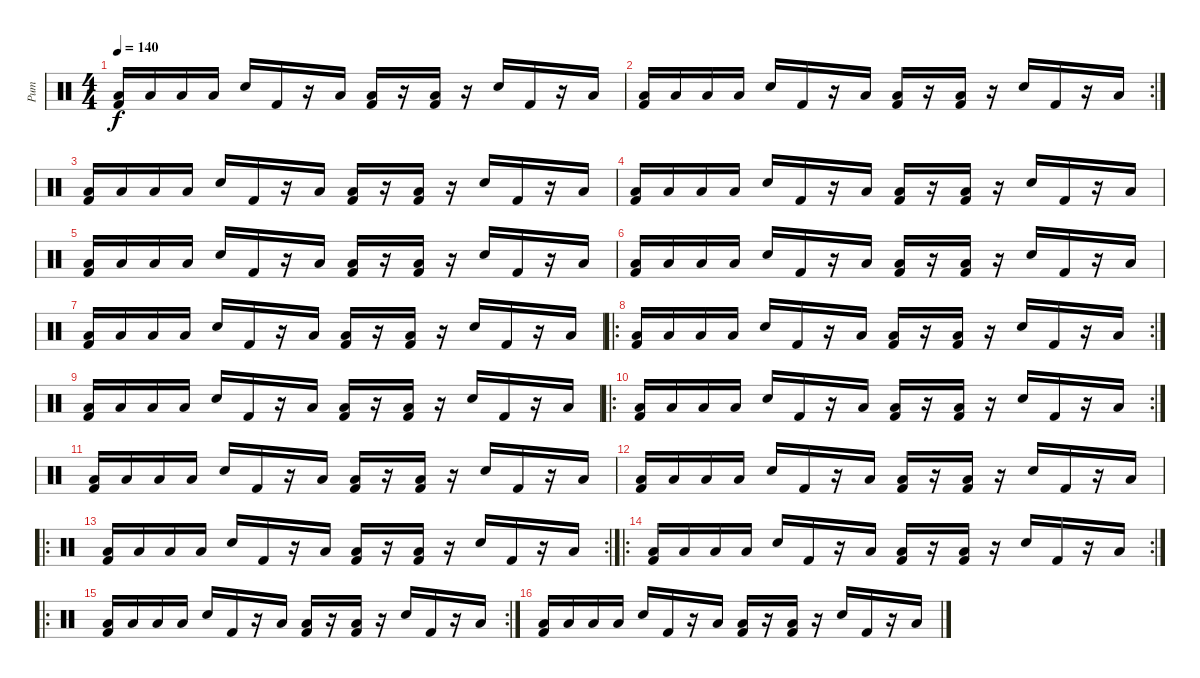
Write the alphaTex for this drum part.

\track ("Рит" "Рит") {instrument percussion}
\staff {score}
\articulation defaults
\ts (4 4)
\tempo 140
\clef neutral
\ks c
("Low Floor Tom (hit)" "Kick (hit) 2").16{dy f volume 6 balance 0} "Low Floor Tom (hit)".16{balance 16} "Low Floor Tom (hit)".16{balance 0} "Low Floor Tom (hit)".16{balance 16} "Snare (hit) 2".16{balance 0} "Kick (hit) 2".16{balance 16} r.16 "Low Tom (hit)".16{balance 0} ("Low Floor Tom (hit)" "Kick (hit) 2").16{balance 16} r.16 ("Low Floor Tom (hit)" "Kick (hit) 2").16{balance 0} r.16 "Snare (hit) 2".16{balance 0} "Kick (hit) 2".16{balance 0} r.16 "Low Tom (hit)".16{balance 16} |
\rc 2
("Low Floor Tom (hit)" "Kick (hit) 2").16{volume 5 balance 0} "Low Floor Tom (hit)".16{balance 16} "Low Floor Tom (hit)".16{balance 0} "Low Floor Tom (hit)".16{balance 16} "Snare (hit) 2".16{balance 0} "Kick (hit) 2".16{balance 16} r.16 "Low Tom (hit)".16{balance 0} ("Low Floor Tom (hit)" "Kick (hit) 2").16{balance 16} r.16 ("Low Floor Tom (hit)" "Kick (hit) 2").16{balance 0} r.16 "Snare (hit) 2".16{balance 0} "Kick (hit) 2".16{balance 0} r.16 "Low Tom (hit)".16{balance 16} |
("Low Floor Tom (hit)" "Kick (hit) 2").16{volume 16} "Low Floor Tom (hit)".16 "Low Floor Tom (hit)".16 "Low Floor Tom (hit)".16 "Snare (hit) 2".16 "Kick (hit) 2".16 r.16 "Low Tom (hit)".16 ("Low Floor Tom (hit)" "Kick (hit) 2").16 r.16 ("Low Floor Tom (hit)" "Kick (hit) 2").16 r.16 "Snare (hit) 2".16 "Kick (hit) 2".16 r.16 "Low Tom (hit)".16 |
("Low Floor Tom (hit)" "Kick (hit) 2").16{volume 16} "Low Floor Tom (hit)".16 "Low Floor Tom (hit)".16 "Low Floor Tom (hit)".16 "Snare (hit) 2".16 "Kick (hit) 2".16 r.16 "Low Tom (hit)".16 ("Low Floor Tom (hit)" "Kick (hit) 2").16 r.16 ("Low Floor Tom (hit)" "Kick (hit) 2").16 r.16 "Snare (hit) 2".16 "Kick (hit) 2".16 r.16 "Low Tom (hit)".16 |
("Low Floor Tom (hit)" "Kick (hit) 2").16{volume 16} "Low Floor Tom (hit)".16 "Low Floor Tom (hit)".16 "Low Floor Tom (hit)".16 "Snare (hit) 2".16 "Kick (hit) 2".16 r.16 "Low Tom (hit)".16 ("Low Floor Tom (hit)" "Kick (hit) 2").16 r.16 ("Low Floor Tom (hit)" "Kick (hit) 2").16 r.16 "Snare (hit) 2".16 "Kick (hit) 2".16 r.16 "Low Tom (hit)".16 |
("Low Floor Tom (hit)" "Kick (hit) 2").16{volume 16} "Low Floor Tom (hit)".16 "Low Floor Tom (hit)".16 "Low Floor Tom (hit)".16 "Snare (hit) 2".16 "Kick (hit) 2".16 r.16 "Low Tom (hit)".16 ("Low Floor Tom (hit)" "Kick (hit) 2").16 r.16 ("Low Floor Tom (hit)" "Kick (hit) 2").16 r.16 "Snare (hit) 2".16 "Kick (hit) 2".16 r.16 "Low Tom (hit)".16 |
("Low Floor Tom (hit)" "Kick (hit) 2").16{volume 16} "Low Floor Tom (hit)".16 "Low Floor Tom (hit)".16 "Low Floor Tom (hit)".16 "Snare (hit) 2".16 "Kick (hit) 2".16 r.16 "Low Tom (hit)".16 ("Low Floor Tom (hit)" "Kick (hit) 2").16 r.16 ("Low Floor Tom (hit)" "Kick (hit) 2").16 r.16 "Snare (hit) 2".16 "Kick (hit) 2".16 r.16 "Low Tom (hit)".16 |
\ro
\rc 2
("Low Floor Tom (hit)" "Kick (hit) 2").16{volume 16} "Low Floor Tom (hit)".16 "Low Floor Tom (hit)".16 "Low Floor Tom (hit)".16 "Snare (hit) 2".16 "Kick (hit) 2".16 r.16 "Low Tom (hit)".16 ("Low Floor Tom (hit)" "Kick (hit) 2").16 r.16 ("Low Floor Tom (hit)" "Kick (hit) 2").16 r.16 "Snare (hit) 2".16 "Kick (hit) 2".16 r.16 "Low Tom (hit)".16 |
("Low Floor Tom (hit)" "Kick (hit) 2").16{volume 16} "Low Floor Tom (hit)".16 "Low Floor Tom (hit)".16 "Low Floor Tom (hit)".16 "Snare (hit) 2".16 "Kick (hit) 2".16 r.16 "Low Tom (hit)".16 ("Low Floor Tom (hit)" "Kick (hit) 2").16 r.16 ("Low Floor Tom (hit)" "Kick (hit) 2").16 r.16 "Snare (hit) 2".16 "Kick (hit) 2".16 r.16 "Low Tom (hit)".16 |
\ro
\rc 2
("Low Floor Tom (hit)" "Kick (hit) 2").16{volume 16} "Low Floor Tom (hit)".16 "Low Floor Tom (hit)".16 "Low Floor Tom (hit)".16 "Snare (hit) 2".16 "Kick (hit) 2".16 r.16 "Low Tom (hit)".16 ("Low Floor Tom (hit)" "Kick (hit) 2").16 r.16 ("Low Floor Tom (hit)" "Kick (hit) 2").16 r.16 "Snare (hit) 2".16 "Kick (hit) 2".16 r.16 "Low Tom (hit)".16 |
("Low Floor Tom (hit)" "Kick (hit) 2").16{volume 16} "Low Floor Tom (hit)".16 "Low Floor Tom (hit)".16 "Low Floor Tom (hit)".16 "Snare (hit) 2".16 "Kick (hit) 2".16 r.16 "Low Tom (hit)".16 ("Low Floor Tom (hit)" "Kick (hit) 2").16 r.16 ("Low Floor Tom (hit)" "Kick (hit) 2").16 r.16 "Snare (hit) 2".16 "Kick (hit) 2".16 r.16 "Low Tom (hit)".16 |
("Low Floor Tom (hit)" "Kick (hit) 2").16{volume 16} "Low Floor Tom (hit)".16 "Low Floor Tom (hit)".16 "Low Floor Tom (hit)".16 "Snare (hit) 2".16 "Kick (hit) 2".16 r.16 "Low Tom (hit)".16 ("Low Floor Tom (hit)" "Kick (hit) 2").16 r.16 ("Low Floor Tom (hit)" "Kick (hit) 2").16 r.16 "Snare (hit) 2".16 "Kick (hit) 2".16 r.16 "Low Tom (hit)".16 |
\ro
\rc 2
("Low Floor Tom (hit)" "Kick (hit) 2").16{volume 16} "Low Floor Tom (hit)".16 "Low Floor Tom (hit)".16 "Low Floor Tom (hit)".16 "Snare (hit) 2".16 "Kick (hit) 2".16 r.16 "Low Tom (hit)".16 ("Low Floor Tom (hit)" "Kick (hit) 2").16 r.16 ("Low Floor Tom (hit)" "Kick (hit) 2").16 r.16 "Snare (hit) 2".16 "Kick (hit) 2".16 r.16 "Low Tom (hit)".16 |
\ro
\rc 2
("Low Floor Tom (hit)" "Kick (hit) 2").16{volume 16} "Low Floor Tom (hit)".16 "Low Floor Tom (hit)".16 "Low Floor Tom (hit)".16 "Snare (hit) 2".16 "Kick (hit) 2".16 r.16 "Low Tom (hit)".16 ("Low Floor Tom (hit)" "Kick (hit) 2").16 r.16 ("Low Floor Tom (hit)" "Kick (hit) 2").16 r.16 "Snare (hit) 2".16 "Kick (hit) 2".16 r.16 "Low Tom (hit)".16 |
\ro
\rc 2
("Low Floor Tom (hit)" "Kick (hit) 2").16{volume 16} "Low Floor Tom (hit)".16 "Low Floor Tom (hit)".16 "Low Floor Tom (hit)".16 "Snare (hit) 2".16 "Kick (hit) 2".16 r.16 "Low Tom (hit)".16 ("Low Floor Tom (hit)" "Kick (hit) 2").16 r.16 ("Low Floor Tom (hit)" "Kick (hit) 2").16 r.16 "Snare (hit) 2".16 "Kick (hit) 2".16 r.16 "Low Tom (hit)".16 |
("Low Floor Tom (hit)" "Kick (hit) 2").16{volume 16} "Low Floor Tom (hit)".16 "Low Floor Tom (hit)".16 "Low Floor Tom (hit)".16 "Snare (hit) 2".16 "Kick (hit) 2".16 r.16 "Low Tom (hit)".16 ("Low Floor Tom (hit)" "Kick (hit) 2").16 r.16 ("Low Floor Tom (hit)" "Kick (hit) 2").16 r.16 "Snare (hit) 2".16 "Kick (hit) 2".16 r.16 "Low Tom (hit)".16
